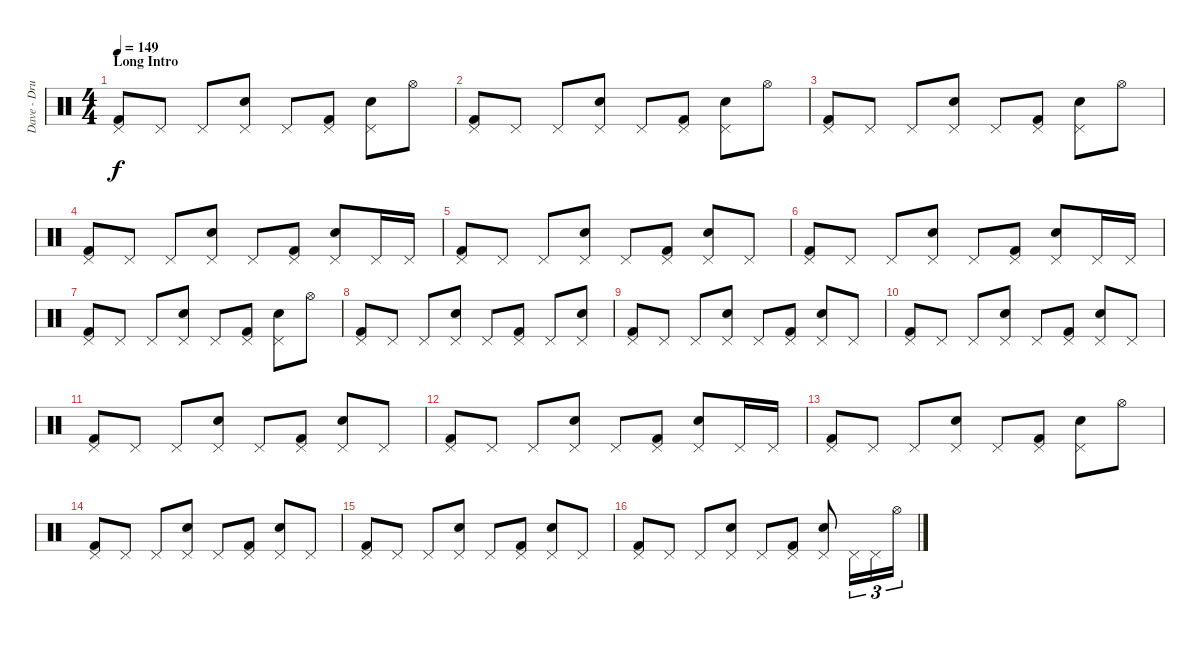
\track ("Dave - Drums" "Dave - Dru") {instrument percussion}
\staff {score}
\articulation defaults
\ts (4 4)
\section ("" "Long Intro")
\tempo 149
\clef neutral
\ks c
("Pedal Hi-Hat (hit)" "Kick (hit) 2").8{dy f} "Pedal Hi-Hat (hit)".8 "Pedal Hi-Hat (hit)".8 ("Pedal Hi-Hat (hit)" "Electric Snare (hit)").8 "Pedal Hi-Hat (hit)".8 ("Pedal Hi-Hat (hit)" "Kick (hit) 2").8 ("Pedal Hi-Hat (hit)" "Electric Snare (hit)").8 "Hi-Hat (open)".8 |
("Pedal Hi-Hat (hit)" "Kick (hit) 2").8 "Pedal Hi-Hat (hit)".8 "Pedal Hi-Hat (hit)".8 ("Pedal Hi-Hat (hit)" "Electric Snare (hit)").8 "Pedal Hi-Hat (hit)".8 ("Pedal Hi-Hat (hit)" "Kick (hit) 2").8 ("Pedal Hi-Hat (hit)" "Electric Snare (hit)").8 "Hi-Hat (open)".8 |
("Pedal Hi-Hat (hit)" "Kick (hit) 2").8 "Pedal Hi-Hat (hit)".8 "Pedal Hi-Hat (hit)".8 ("Pedal Hi-Hat (hit)" "Electric Snare (hit)").8 "Pedal Hi-Hat (hit)".8 ("Pedal Hi-Hat (hit)" "Kick (hit) 2").8 ("Pedal Hi-Hat (hit)" "Electric Snare (hit)").8 "Hi-Hat (open)".8 |
("Pedal Hi-Hat (hit)" "Kick (hit) 2").8 "Pedal Hi-Hat (hit)".8 "Pedal Hi-Hat (hit)".8 ("Pedal Hi-Hat (hit)" "Electric Snare (hit)").8 "Pedal Hi-Hat (hit)".8 ("Pedal Hi-Hat (hit)" "Kick (hit) 2").8 ("Pedal Hi-Hat (hit)" "Electric Snare (hit)").8 "Pedal Hi-Hat (hit)".16 "Pedal Hi-Hat (hit)".16 |
("Pedal Hi-Hat (hit)" "Kick (hit) 2").8 "Pedal Hi-Hat (hit)".8 "Pedal Hi-Hat (hit)".8 ("Pedal Hi-Hat (hit)" "Electric Snare (hit)").8 "Pedal Hi-Hat (hit)".8 ("Pedal Hi-Hat (hit)" "Kick (hit) 2").8 ("Pedal Hi-Hat (hit)" "Electric Snare (hit)").8 "Pedal Hi-Hat (hit)".8 |
("Pedal Hi-Hat (hit)" "Kick (hit) 2").8 "Pedal Hi-Hat (hit)".8 "Pedal Hi-Hat (hit)".8 ("Pedal Hi-Hat (hit)" "Electric Snare (hit)").8 "Pedal Hi-Hat (hit)".8 ("Pedal Hi-Hat (hit)" "Kick (hit) 2").8 ("Pedal Hi-Hat (hit)" "Electric Snare (hit)").8 "Pedal Hi-Hat (hit)".16 "Pedal Hi-Hat (hit)".16 |
("Pedal Hi-Hat (hit)" "Kick (hit) 2").8 "Pedal Hi-Hat (hit)".8 "Pedal Hi-Hat (hit)".8 ("Pedal Hi-Hat (hit)" "Electric Snare (hit)").8 "Pedal Hi-Hat (hit)".8 ("Pedal Hi-Hat (hit)" "Kick (hit) 2").8 ("Pedal Hi-Hat (hit)" "Electric Snare (hit)").8 "Hi-Hat (open)".8 |
("Pedal Hi-Hat (hit)" "Kick (hit) 2").8 "Pedal Hi-Hat (hit)".8 "Pedal Hi-Hat (hit)".8 ("Pedal Hi-Hat (hit)" "Electric Snare (hit)").8 "Pedal Hi-Hat (hit)".8 ("Pedal Hi-Hat (hit)" "Kick (hit) 2").8 "Pedal Hi-Hat (hit)".8 ("Pedal Hi-Hat (hit)" "Electric Snare (hit)").8 |
("Pedal Hi-Hat (hit)" "Kick (hit) 2").8 "Pedal Hi-Hat (hit)".8 "Pedal Hi-Hat (hit)".8 ("Pedal Hi-Hat (hit)" "Electric Snare (hit)").8 "Pedal Hi-Hat (hit)".8 ("Pedal Hi-Hat (hit)" "Kick (hit) 2").8 ("Pedal Hi-Hat (hit)" "Electric Snare (hit)").8 "Pedal Hi-Hat (hit)".8 |
("Pedal Hi-Hat (hit)" "Kick (hit) 2").8 "Pedal Hi-Hat (hit)".8 "Pedal Hi-Hat (hit)".8 ("Pedal Hi-Hat (hit)" "Electric Snare (hit)").8 "Pedal Hi-Hat (hit)".8 ("Pedal Hi-Hat (hit)" "Kick (hit) 2").8 ("Pedal Hi-Hat (hit)" "Electric Snare (hit)").8 "Pedal Hi-Hat (hit)".8 |
("Pedal Hi-Hat (hit)" "Kick (hit) 2").8 "Pedal Hi-Hat (hit)".8 "Pedal Hi-Hat (hit)".8 ("Pedal Hi-Hat (hit)" "Electric Snare (hit)").8 "Pedal Hi-Hat (hit)".8 ("Pedal Hi-Hat (hit)" "Kick (hit) 2").8 ("Pedal Hi-Hat (hit)" "Electric Snare (hit)").8 "Pedal Hi-Hat (hit)".8 |
("Pedal Hi-Hat (hit)" "Kick (hit) 2").8 "Pedal Hi-Hat (hit)".8 "Pedal Hi-Hat (hit)".8 ("Pedal Hi-Hat (hit)" "Electric Snare (hit)").8 "Pedal Hi-Hat (hit)".8 ("Pedal Hi-Hat (hit)" "Kick (hit) 2").8 ("Pedal Hi-Hat (hit)" "Electric Snare (hit)").8 "Pedal Hi-Hat (hit)".16 "Pedal Hi-Hat (hit)".16 |
("Pedal Hi-Hat (hit)" "Kick (hit) 2").8 "Pedal Hi-Hat (hit)".8 "Pedal Hi-Hat (hit)".8 ("Pedal Hi-Hat (hit)" "Electric Snare (hit)").8 "Pedal Hi-Hat (hit)".8 ("Pedal Hi-Hat (hit)" "Kick (hit) 2").8 ("Pedal Hi-Hat (hit)" "Electric Snare (hit)").8 "Hi-Hat (open)".8 |
("Pedal Hi-Hat (hit)" "Kick (hit) 2").8 "Pedal Hi-Hat (hit)".8 "Pedal Hi-Hat (hit)".8 ("Pedal Hi-Hat (hit)" "Electric Snare (hit)").8 "Pedal Hi-Hat (hit)".8 ("Pedal Hi-Hat (hit)" "Kick (hit) 2").8 ("Pedal Hi-Hat (hit)" "Electric Snare (hit)").8 "Pedal Hi-Hat (hit)".8 |
("Pedal Hi-Hat (hit)" "Kick (hit) 2").8 "Pedal Hi-Hat (hit)".8 "Pedal Hi-Hat (hit)".8 ("Pedal Hi-Hat (hit)" "Electric Snare (hit)").8 "Pedal Hi-Hat (hit)".8 ("Pedal Hi-Hat (hit)" "Kick (hit) 2").8 ("Pedal Hi-Hat (hit)" "Electric Snare (hit)").8 "Pedal Hi-Hat (hit)".8 |
("Pedal Hi-Hat (hit)" "Kick (hit) 2").8 "Pedal Hi-Hat (hit)".8 "Pedal Hi-Hat (hit)".8 ("Pedal Hi-Hat (hit)" "Electric Snare (hit)").8 "Pedal Hi-Hat (hit)".8 ("Pedal Hi-Hat (hit)" "Kick (hit) 2").8 ("Pedal Hi-Hat (hit)" "Electric Snare (hit)").8 "Pedal Hi-Hat (hit)".16{tu (3 2)} "Pedal Hi-Hat (hit)".16{tu (3 2)} "Hi-Hat (open)".16{tu (3 2)}
